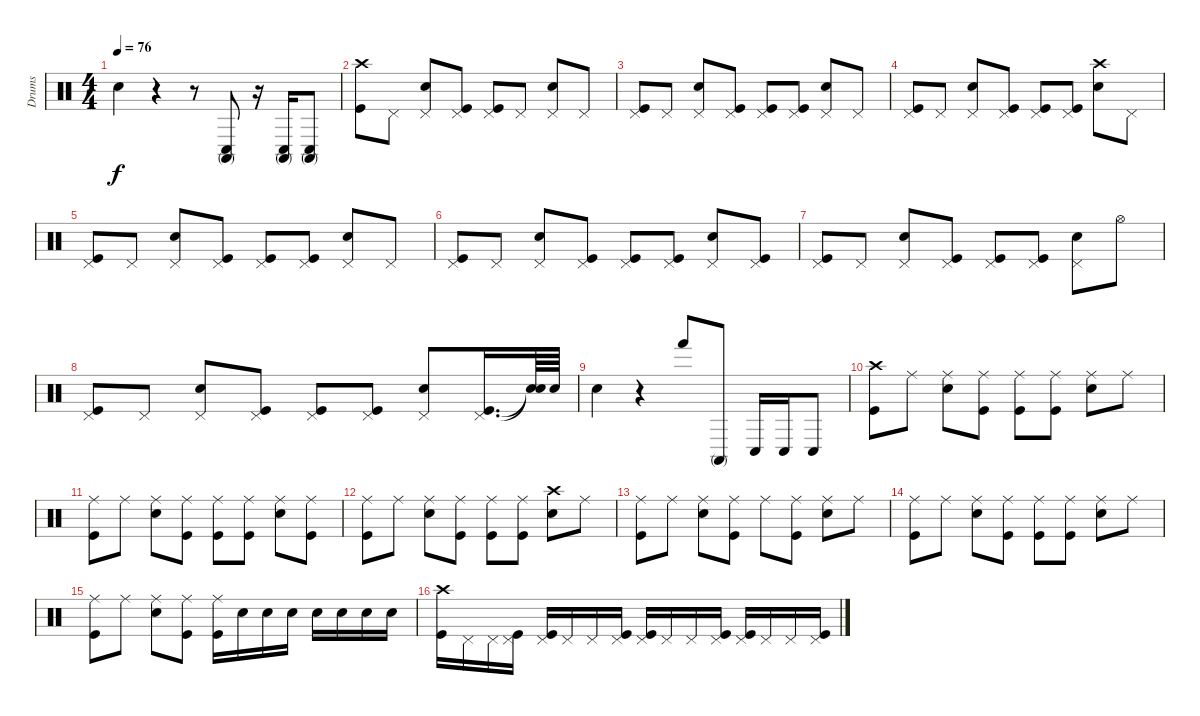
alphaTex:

\track ("Drums" "Drums") {instrument percussion}
\staff {score}
\articulation defaults
\ts (4 4)
\tempo 76
\clef neutral
\ks c "Electric Snare (hit)".4{dy f}
r.4 r.8 ("Conga high (mute)" "Conga low (hit)").8 r.16 ("Conga low (hit)" "Conga high (mute)").16 ("Conga low (hit)" "Conga high (mute)").8 |
("Kick (hit)" "Crash high (hit)").8 "Pedal Hi-Hat (hit)".8 ("Pedal Hi-Hat (hit)" "Electric Snare (hit)").8 ("Pedal Hi-Hat (hit)" "Kick (hit)").8 ("Pedal Hi-Hat (hit)" "Kick (hit)").8 "Pedal Hi-Hat (hit)".8 ("Pedal Hi-Hat (hit)" "Electric Snare (hit)").8 "Pedal Hi-Hat (hit)".8 |
("Pedal Hi-Hat (hit)" "Kick (hit)").8 "Pedal Hi-Hat (hit)".8 ("Pedal Hi-Hat (hit)" "Electric Snare (hit)").8 ("Pedal Hi-Hat (hit)" "Kick (hit)").8 ("Pedal Hi-Hat (hit)" "Kick (hit)").8 ("Pedal Hi-Hat (hit)" "Kick (hit)").8 ("Pedal Hi-Hat (hit)" "Electric Snare (hit)").8 "Pedal Hi-Hat (hit)".8 |
("Pedal Hi-Hat (hit)" "Kick (hit)").8 "Pedal Hi-Hat (hit)".8 ("Pedal Hi-Hat (hit)" "Electric Snare (hit)").8 ("Pedal Hi-Hat (hit)" "Kick (hit)").8 ("Pedal Hi-Hat (hit)" "Kick (hit)").8 ("Pedal Hi-Hat (hit)" "Kick (hit)").8 ("Electric Snare (hit)" "Crash high (hit)").8 "Pedal Hi-Hat (hit)".8 |
("Kick (hit)" "Pedal Hi-Hat (hit)").8 "Pedal Hi-Hat (hit)".8 ("Pedal Hi-Hat (hit)" "Electric Snare (hit)").8 ("Pedal Hi-Hat (hit)" "Kick (hit)").8 ("Pedal Hi-Hat (hit)" "Kick (hit)").8 ("Pedal Hi-Hat (hit)" "Kick (hit)").8 ("Pedal Hi-Hat (hit)" "Electric Snare (hit)").8 "Pedal Hi-Hat (hit)".8 |
("Pedal Hi-Hat (hit)" "Kick (hit)").8 "Pedal Hi-Hat (hit)".8 ("Pedal Hi-Hat (hit)" "Electric Snare (hit)").8 ("Pedal Hi-Hat (hit)" "Kick (hit)").8 ("Pedal Hi-Hat (hit)" "Kick (hit)").8 ("Pedal Hi-Hat (hit)" "Kick (hit)").8 ("Pedal Hi-Hat (hit)" "Electric Snare (hit)").8 ("Pedal Hi-Hat (hit)" "Kick (hit)").8 |
("Kick (hit)" "Pedal Hi-Hat (hit)").8 "Pedal Hi-Hat (hit)".8 ("Pedal Hi-Hat (hit)" "Electric Snare (hit)").8 ("Pedal Hi-Hat (hit)" "Kick (hit)").8 ("Pedal Hi-Hat (hit)" "Kick (hit)").8 ("Pedal Hi-Hat (hit)" "Kick (hit)").8 ("Pedal Hi-Hat (hit)" "Electric Snare (hit)").8 "Hi-Hat (open)".8 |
("Pedal Hi-Hat (hit)" "Kick (hit)").8 "Pedal Hi-Hat (hit)".8 ("Pedal Hi-Hat (hit)" "Electric Snare (hit)").8 ("Pedal Hi-Hat (hit)" "Kick (hit)").8 ("Pedal Hi-Hat (hit)" "Kick (hit)").8 ("Pedal Hi-Hat (hit)" "Kick (hit)").8 ("Pedal Hi-Hat (hit)" "Electric Snare (hit)").8 ("Pedal Hi-Hat (hit)" "Kick (hit)").16{d} ("Snare (hit)"{t} "Snare (hit)"{t}).64 "Electric Snare (hit)".64 |
"Electric Snare (hit)".4 r.4 "Hand (hit)".8 "Conga high (mute)".8 "Conga low (hit)".16 "Conga low (hit)".16 "Conga low (hit)".8 |
("Kick (hit)" "Crash high (hit)").8 "Ride (middle)".8 ("Electric Snare (hit)" "Ride (middle)").8 ("Kick (hit)" "Ride (middle)").8 ("Kick (hit)" "Ride (middle)").8 ("Kick (hit)" "Ride (middle)").8 ("Electric Snare (hit)" "Ride (middle)").8 "Ride (middle)".8 |
("Kick (hit)" "Ride (middle)").8 "Ride (middle)".8 ("Electric Snare (hit)" "Ride (middle)").8 ("Kick (hit)" "Ride (middle)").8 ("Kick (hit)" "Ride (middle)").8 ("Kick (hit)" "Ride (middle)").8 ("Ride (middle)" "Electric Snare (hit)").8 ("Ride (middle)" "Kick (hit)").8 |
("Kick (hit)" "Ride (middle)").8 "Ride (middle)".8 ("Electric Snare (hit)" "Ride (middle)").8 ("Kick (hit)" "Ride (middle)").8 ("Kick (hit)" "Ride (middle)").8 ("Kick (hit)" "Ride (middle)").8 ("Electric Snare (hit)" "Crash high (hit)").8 "Ride (middle)".8 |
("Kick (hit)" "Ride (middle)").8 "Ride (middle)".8 ("Electric Snare (hit)" "Ride (middle)").8 ("Kick (hit)" "Ride (middle)").8 "Ride (middle)".8 ("Kick (hit)" "Ride (middle)").8 ("Electric Snare (hit)" "Ride (middle)").8 "Ride (middle)".8 |
("Kick (hit)" "Ride (middle)").8 "Ride (middle)".8 ("Electric Snare (hit)" "Ride (middle)").8 ("Kick (hit)" "Ride (middle)").8 ("Kick (hit)" "Ride (middle)").8 ("Kick (hit)" "Ride (middle)").8 ("Electric Snare (hit)" "Ride (middle)").8 "Ride (middle)".8 |
("Kick (hit)" "Ride (middle)").8 "Ride (middle)".8 ("Electric Snare (hit)" "Ride (middle)").8 ("Kick (hit)" "Ride (middle)").8 ("Kick (hit)" "Ride (middle)").16 "Electric Snare (hit)".16 "Electric Snare (hit)".16 "Electric Snare (hit)".16 "Electric Snare (hit)".16 "Electric Snare (hit)".16 "Electric Snare (hit)".16 "Electric Snare (hit)".16 |
("Crash high (hit)" "Kick (hit)").16 "Pedal Hi-Hat (hit)".16 "Pedal Hi-Hat (hit)".16 ("Pedal Hi-Hat (hit)" "Kick (hit)").16 ("Pedal Hi-Hat (hit)" "Kick (hit)").16 "Pedal Hi-Hat (hit)".16 "Pedal Hi-Hat (hit)".16 ("Pedal Hi-Hat (hit)" "Kick (hit)").16 ("Pedal Hi-Hat (hit)" "Kick (hit)").16 "Pedal Hi-Hat (hit)".16 "Pedal Hi-Hat (hit)".16 ("Pedal Hi-Hat (hit)" "Kick (hit)").16 ("Pedal Hi-Hat (hit)" "Kick (hit)").16 "Pedal Hi-Hat (hit)".16 "Pedal Hi-Hat (hit)".16 ("Pedal Hi-Hat (hit)" "Kick (hit)").16
